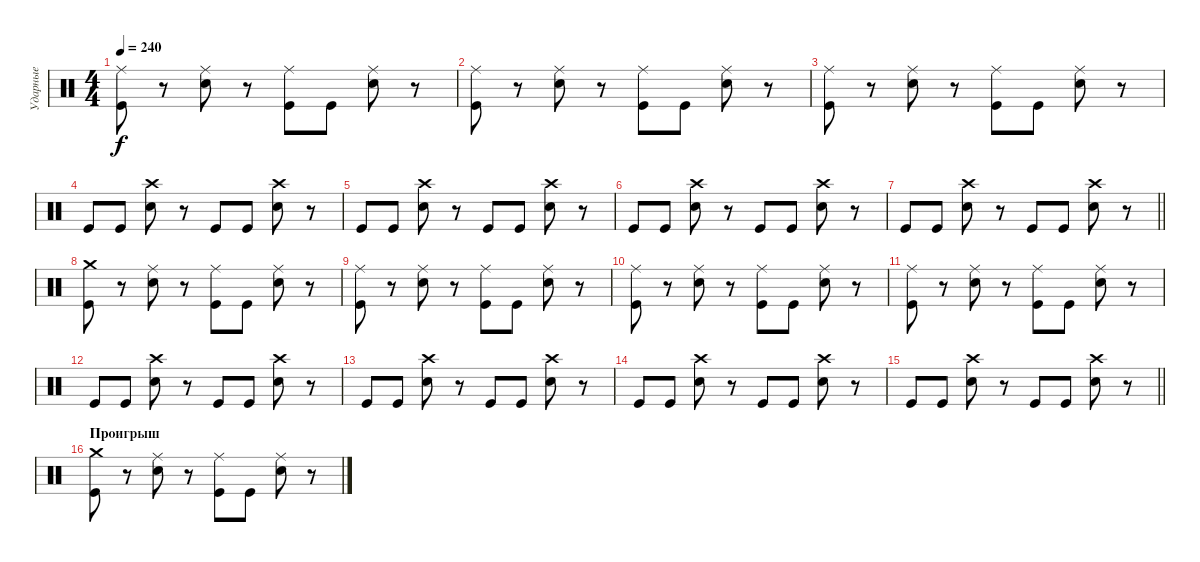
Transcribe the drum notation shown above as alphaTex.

\track ("Ударные" "Ударные") {instrument percussion}
\staff {score}
\articulation defaults
\ts (4 4)
\tempo 240
\clef neutral
\ks c
("Ride (middle)" "Kick (hit)").8{dy f} r.8 ("Ride (middle)" "Electric Snare (hit)").8 r.8 ("Ride (middle)" "Kick (hit)").8 "Kick (hit)".8 ("Ride (middle)" "Electric Snare (hit)").8 r.8 |
("Ride (middle)" "Kick (hit)").8 r.8 ("Ride (middle)" "Electric Snare (hit)").8 r.8 ("Ride (middle)" "Kick (hit)").8 "Kick (hit)".8 ("Ride (middle)" "Electric Snare (hit)").8 r.8 |
("Ride (middle)" "Kick (hit)").8 r.8 ("Ride (middle)" "Electric Snare (hit)").8 r.8 ("Ride (middle)" "Kick (hit)").8 "Kick (hit)".8 ("Ride (middle)" "Electric Snare (hit)").8 r.8 |
"Kick (hit)".8 "Kick (hit)".8 ("Crash high (hit)" "Electric Snare (hit)").8 r.8 "Kick (hit)".8 "Kick (hit)".8 ("Crash high (hit)" "Electric Snare (hit)").8 r.8 |
"Kick (hit)".8 "Kick (hit)".8 ("Crash high (hit)" "Electric Snare (hit)").8 r.8 "Kick (hit)".8 "Kick (hit)".8 ("Crash high (hit)" "Electric Snare (hit)").8 r.8 |
"Kick (hit)".8 "Kick (hit)".8 ("Crash high (hit)" "Electric Snare (hit)").8 r.8 "Kick (hit)".8 "Kick (hit)".8 ("Crash high (hit)" "Electric Snare (hit)").8 r.8 |
\barLineRight lightlight "Kick (hit)".8 "Kick (hit)".8
("Crash high (hit)" "Electric Snare (hit)").8 r.8 "Kick (hit)".8 "Kick (hit)".8 ("Crash high (hit)" "Electric Snare (hit)").8 r.8 |
\section ("" " ")
("Crash medium (hit)" "Kick (hit)").8 r.8 ("Ride (middle)" "Electric Snare (hit)").8 r.8 ("Ride (middle)" "Kick (hit)").8 "Kick (hit)".8 ("Ride (middle)" "Electric Snare (hit)").8 r.8 |
("Ride (middle)" "Kick (hit)").8 r.8 ("Ride (middle)" "Electric Snare (hit)").8 r.8 ("Ride (middle)" "Kick (hit)").8 "Kick (hit)".8 ("Ride (middle)" "Electric Snare (hit)").8 r.8 |
("Ride (middle)" "Kick (hit)").8 r.8 ("Ride (middle)" "Electric Snare (hit)").8 r.8 ("Ride (middle)" "Kick (hit)").8 "Kick (hit)".8 ("Ride (middle)" "Electric Snare (hit)").8 r.8 |
("Ride (middle)" "Kick (hit)").8 r.8 ("Ride (middle)" "Electric Snare (hit)").8 r.8 ("Ride (middle)" "Kick (hit)").8 "Kick (hit)".8 ("Ride (middle)" "Electric Snare (hit)").8 r.8 |
"Kick (hit)".8 "Kick (hit)".8 ("Crash high (hit)" "Electric Snare (hit)").8 r.8 "Kick (hit)".8 "Kick (hit)".8 ("Crash high (hit)" "Electric Snare (hit)").8 r.8 |
"Kick (hit)".8 "Kick (hit)".8 ("Crash high (hit)" "Electric Snare (hit)").8 r.8 "Kick (hit)".8 "Kick (hit)".8 ("Crash high (hit)" "Electric Snare (hit)").8 r.8 |
"Kick (hit)".8 "Kick (hit)".8 ("Crash high (hit)" "Electric Snare (hit)").8 r.8 "Kick (hit)".8 "Kick (hit)".8 ("Crash high (hit)" "Electric Snare (hit)").8 r.8 |
\barLineRight lightlight "Kick (hit)".8 "Kick (hit)".8
("Crash high (hit)" "Electric Snare (hit)").8 r.8 "Kick (hit)".8 "Kick (hit)".8 ("Crash high (hit)" "Electric Snare (hit)").8 r.8 |
\section ("" "Проигрыш")
("Crash medium (hit)" "Kick (hit)").8 r.8 ("Ride (middle)" "Electric Snare (hit)").8 r.8 ("Ride (middle)" "Kick (hit)").8 "Kick (hit)".8 ("Ride (middle)" "Electric Snare (hit)").8 r.8
